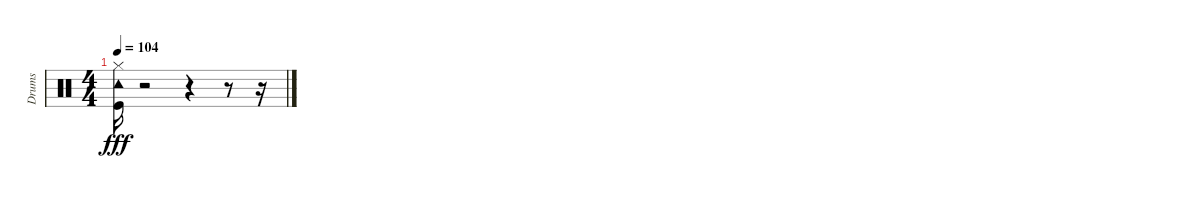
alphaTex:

\track ("Drums" "Drums") {instrument percussion}
\staff {score}
\articulation defaults
\ts (4 4)
\tempo 104
\clef neutral
\ks c
("Kick (hit)" "Tambourine (hit)" "Hi-Hat (closed)").16{dy fff} r.2 r.4 r.8 r.16
